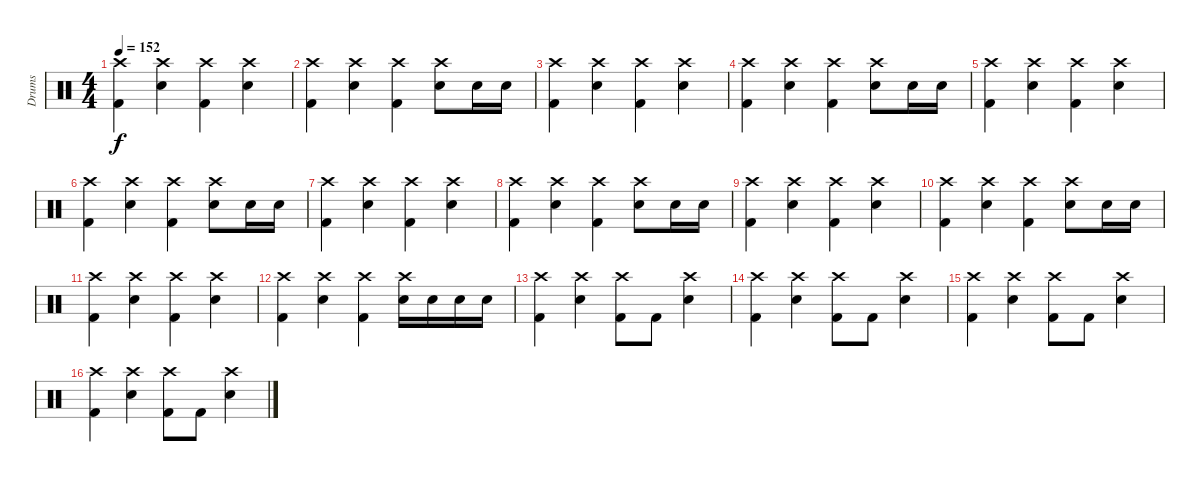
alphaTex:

\track ("Drums" "Drums") {instrument percussion}
\staff {score}
\articulation defaults
\ts (4 4)
\tempo 152
\clef neutral
\ks c
("Crash high (hit)" "Kick (hit) 2").4{dy f} ("Crash high (hit)" "Electric Snare (hit)").4 ("Crash high (hit)" "Kick (hit) 2").4 ("Crash high (hit)" "Electric Snare (hit)").4 |
("Crash high (hit)" "Kick (hit) 2").4 ("Crash high (hit)" "Electric Snare (hit)").4 ("Crash high (hit)" "Kick (hit) 2").4 ("Crash high (hit)" "Electric Snare (hit)").8 "Electric Snare (hit)".16 "Electric Snare (hit)".16 |
("Crash high (hit)" "Kick (hit) 2").4 ("Crash high (hit)" "Electric Snare (hit)").4 ("Crash high (hit)" "Kick (hit) 2").4 ("Crash high (hit)" "Electric Snare (hit)").4 |
("Crash high (hit)" "Kick (hit) 2").4 ("Crash high (hit)" "Electric Snare (hit)").4 ("Crash high (hit)" "Kick (hit) 2").4 ("Crash high (hit)" "Electric Snare (hit)").8 "Electric Snare (hit)".16 "Electric Snare (hit)".16 |
("Crash high (hit)" "Kick (hit) 2").4 ("Crash high (hit)" "Electric Snare (hit)").4 ("Crash high (hit)" "Kick (hit) 2").4 ("Crash high (hit)" "Electric Snare (hit)").4 |
("Crash high (hit)" "Kick (hit) 2").4 ("Crash high (hit)" "Electric Snare (hit)").4 ("Crash high (hit)" "Kick (hit) 2").4 ("Crash high (hit)" "Electric Snare (hit)").8 "Electric Snare (hit)".16 "Electric Snare (hit)".16 |
("Crash high (hit)" "Kick (hit) 2").4 ("Crash high (hit)" "Electric Snare (hit)").4 ("Crash high (hit)" "Kick (hit) 2").4 ("Crash high (hit)" "Electric Snare (hit)").4 |
("Crash high (hit)" "Kick (hit) 2").4 ("Crash high (hit)" "Electric Snare (hit)").4 ("Crash high (hit)" "Kick (hit) 2").4 ("Crash high (hit)" "Electric Snare (hit)").8 "Electric Snare (hit)".16 "Electric Snare (hit)".16 |
("Crash high (hit)" "Kick (hit) 2").4 ("Crash high (hit)" "Electric Snare (hit)").4 ("Crash high (hit)" "Kick (hit) 2").4 ("Crash high (hit)" "Electric Snare (hit)").4 |
("Crash high (hit)" "Kick (hit) 2").4 ("Crash high (hit)" "Electric Snare (hit)").4 ("Crash high (hit)" "Kick (hit) 2").4 ("Crash high (hit)" "Electric Snare (hit)").8 "Electric Snare (hit)".16 "Electric Snare (hit)".16 |
("Crash high (hit)" "Kick (hit) 2").4 ("Crash high (hit)" "Electric Snare (hit)").4 ("Crash high (hit)" "Kick (hit) 2").4 ("Crash high (hit)" "Electric Snare (hit)").4 |
("Crash high (hit)" "Kick (hit) 2").4 ("Crash high (hit)" "Electric Snare (hit)").4 ("Crash high (hit)" "Kick (hit) 2").4 ("Crash high (hit)" "Electric Snare (hit)").16 "Electric Snare (hit)".16 "Electric Snare (hit)".16 "Electric Snare (hit)".16 |
("Crash high (hit)" "Kick (hit) 2").4 ("Crash high (hit)" "Electric Snare (hit)").4 ("Crash high (hit)" "Kick (hit) 2").8 "Kick (hit) 2".8 ("Crash high (hit)" "Electric Snare (hit)").4 |
("Crash high (hit)" "Kick (hit) 2").4 ("Crash high (hit)" "Electric Snare (hit)").4 ("Crash high (hit)" "Kick (hit) 2").8 "Kick (hit) 2".8 ("Crash high (hit)" "Electric Snare (hit)").4 |
("Crash high (hit)" "Kick (hit) 2").4 ("Crash high (hit)" "Electric Snare (hit)").4 ("Crash high (hit)" "Kick (hit) 2").8 "Kick (hit) 2".8 ("Crash high (hit)" "Electric Snare (hit)").4 |
("Crash high (hit)" "Kick (hit) 2").4 ("Crash high (hit)" "Electric Snare (hit)").4 ("Crash high (hit)" "Kick (hit) 2").8 "Kick (hit) 2".8 ("Crash high (hit)" "Electric Snare (hit)").4
